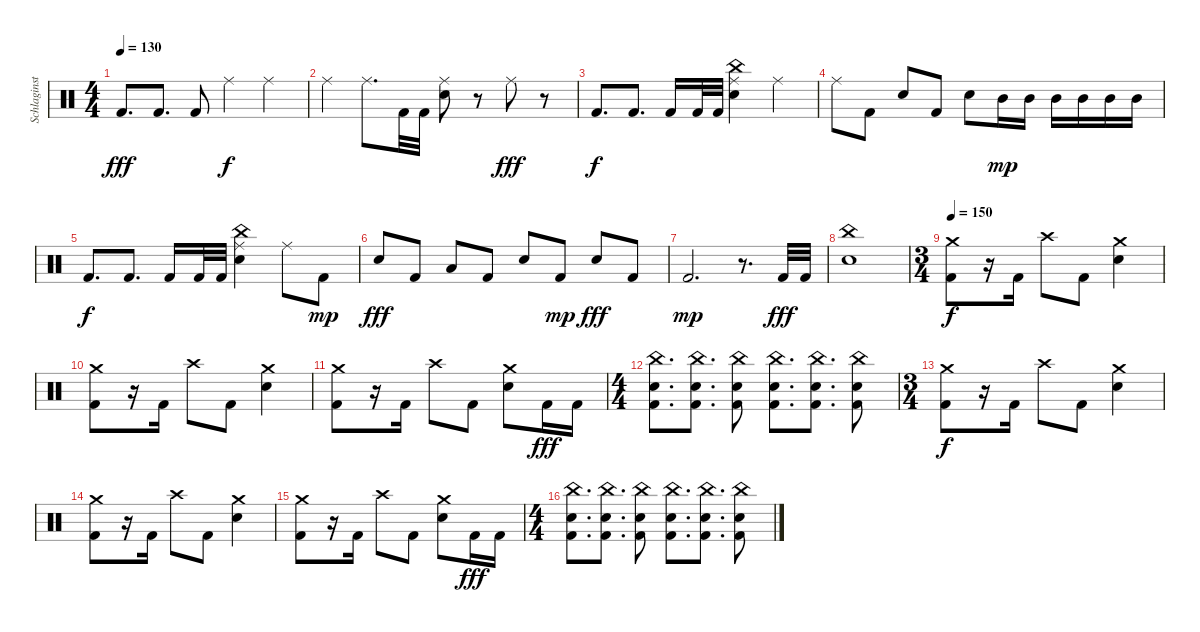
\track ("Schlaginstrumente - Auswahl" "Schlaginst") {instrument percussion}
\staff {score}
\articulation defaults
\ts (4 4)
\tempo 130
\clef neutral
\ks c "Kick (hit) 2".8{d dy fff} "Kick (hit) 2".8{d} "Kick (hit) 2".8 "Ride (middle)".4{dy f} "Ride (middle)".4
|
"Ride (middle)".4 "Ride (middle)".8{d} "Kick (hit) 2".32 "Kick (hit) 2".32 ("Electric Snare (hit)" "Ride (middle)").8 r.8 "Ride (middle)".8{dy fff} r.8 |
"Kick (hit) 2".8{d dy f} "Kick (hit) 2".8{d} "Kick (hit) 2".16 "Kick (hit) 2".32 "Kick (hit) 2".32 ("China (hit)" "Ride (middle)" "Electric Snare (hit)").4 "Ride (middle)".4 |
"Ride (middle)".8 "Kick (hit) 2".8 "Electric Snare (hit)".8 "Kick (hit) 2".8 "Electric Snare (hit)".8 "Mid Tom (hit)".16{dy mp} "Mid Tom (hit)".16 "Mid Tom (hit)".16 "Mid Tom (hit)".16 "Mid Tom (hit)".16 "Mid Tom (hit)".16 |
"Kick (hit) 2".8{d dy f} "Kick (hit) 2".8{d} "Kick (hit) 2".16 "Kick (hit) 2".32 "Kick (hit) 2".32 ("China (hit)" "Ride (middle)" "Electric Snare (hit)").4 "Ride (middle)".8 "Kick (hit) 2".8{dy mp} |
"Electric Snare (hit)".8{dy fff} "Kick (hit) 2".8 "Low Tom (hit)".8 "Kick (hit) 2".8 "Electric Snare (hit)".8 "Kick (hit) 2".8{dy mp} "Electric Snare (hit)".8{dy fff} "Kick (hit) 2".8 |
"Kick (hit) 2".2{d dy mp} r.8{d} "Kick (hit) 2".32{dy fff} "Kick (hit) 2".32 |
("China (hit)" "Electric Snare (hit)").1 |
\ts (3 4)
\tempo 150
("Crash medium (hit)" "Kick (hit) 2").8{dy f} r.16 "Kick (hit) 2".16 "Crash high (hit)".8 "Kick (hit) 2".8 ("Crash medium (hit)" "Electric Snare (hit)").4 |
("Crash medium (hit)" "Kick (hit) 2").8 r.16 "Kick (hit) 2".16 "Crash high (hit)".8 "Kick (hit) 2".8 ("Crash medium (hit)" "Electric Snare (hit)").4 |
("Crash medium (hit)" "Kick (hit) 2").8 r.16 "Kick (hit) 2".16 "Crash high (hit)".8 "Kick (hit) 2".8 ("Crash medium (hit)" "Electric Snare (hit)").8 "Kick (hit) 2".16{dy fff} "Kick (hit) 2".16 |
\ts (4 4)
("China (hit)" "Electric Snare (hit)" "Kick (hit) 2").8{d} ("China (hit)" "Electric Snare (hit)" "Kick (hit) 2").8{d} ("China (hit)" "Electric Snare (hit)" "Kick (hit) 2").8 ("China (hit)" "Electric Snare (hit)" "Kick (hit) 2").8{d} ("China (hit)" "Electric Snare (hit)" "Kick (hit) 2").8{d} ("China (hit)" "Electric Snare (hit)" "Kick (hit) 2").8 |
\ts (3 4)
("Crash medium (hit)" "Kick (hit) 2").8{dy f} r.16 "Kick (hit) 2".16 "Crash high (hit)".8 "Kick (hit) 2".8 ("Crash medium (hit)" "Electric Snare (hit)").4 |
("Crash medium (hit)" "Kick (hit) 2").8 r.16 "Kick (hit) 2".16 "Crash high (hit)".8 "Kick (hit) 2".8 ("Crash medium (hit)" "Electric Snare (hit)").4 |
("Crash medium (hit)" "Kick (hit) 2").8 r.16 "Kick (hit) 2".16 "Crash high (hit)".8 "Kick (hit) 2".8 ("Crash medium (hit)" "Electric Snare (hit)").8 "Kick (hit) 2".16{dy fff} "Kick (hit) 2".16 |
\ts (4 4)
("China (hit)" "Electric Snare (hit)" "Kick (hit) 2").8{d} ("China (hit)" "Electric Snare (hit)" "Kick (hit) 2").8{d} ("China (hit)" "Electric Snare (hit)" "Kick (hit) 2").8 ("China (hit)" "Electric Snare (hit)" "Kick (hit) 2").8{d} ("China (hit)" "Electric Snare (hit)" "Kick (hit) 2").8{d} ("China (hit)" "Electric Snare (hit)" "Kick (hit) 2").8
